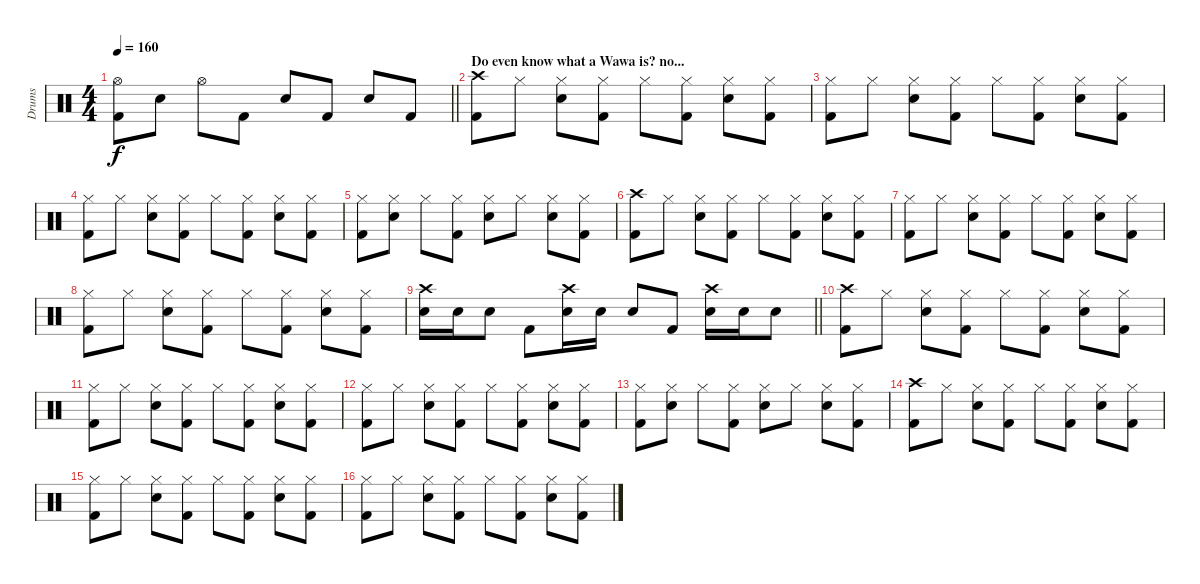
\track ("Drums" "Drums") {instrument percussion}
\staff {score}
\articulation defaults
\ts (4 4)
\tempo 160
\clef neutral
\barLineRight lightlight
\ks c
("Hi-Hat (open)" "Kick (hit) 2").8{dy f} "Electric Snare (hit)".8 "Hi-Hat (open)".8 "Kick (hit) 2".8 "Electric Snare (hit)".8 "Kick (hit) 2".8 "Electric Snare (hit)".8 "Kick (hit) 2".8 |
\section ("" "Do even know what a Wawa is? no...")
("Crash high (hit)" "Kick (hit) 2").8 "Hi-Hat (closed)".8 ("Hi-Hat (closed)" "Electric Snare (hit)").8 ("Hi-Hat (closed)" "Kick (hit) 2").8 "Hi-Hat (closed)".8 ("Hi-Hat (closed)" "Kick (hit) 2").8 ("Hi-Hat (closed)" "Electric Snare (hit)").8 ("Hi-Hat (closed)" "Kick (hit) 2").8 |
("Hi-Hat (closed)" "Kick (hit) 2").8 "Hi-Hat (closed)".8 ("Hi-Hat (closed)" "Electric Snare (hit)").8 ("Hi-Hat (closed)" "Kick (hit) 2").8 "Hi-Hat (closed)".8 ("Hi-Hat (closed)" "Kick (hit) 2").8 ("Hi-Hat (closed)" "Electric Snare (hit)").8 ("Hi-Hat (closed)" "Kick (hit) 2").8 |
("Hi-Hat (closed)" "Kick (hit) 2").8 "Hi-Hat (closed)".8 ("Hi-Hat (closed)" "Electric Snare (hit)").8 ("Hi-Hat (closed)" "Kick (hit) 2").8 "Hi-Hat (closed)".8 ("Hi-Hat (closed)" "Kick (hit) 2").8 ("Hi-Hat (closed)" "Electric Snare (hit)").8 ("Hi-Hat (closed)" "Kick (hit) 2").8 |
("Hi-Hat (closed)" "Kick (hit) 2").8 ("Hi-Hat (closed)" "Electric Snare (hit)").8 "Hi-Hat (closed)".8 ("Hi-Hat (closed)" "Kick (hit) 2").8 ("Hi-Hat (closed)" "Electric Snare (hit)").8 "Hi-Hat (closed)".8 ("Hi-Hat (closed)" "Electric Snare (hit)").8 ("Hi-Hat (closed)" "Kick (hit) 2").8 |
("Crash high (hit)" "Kick (hit) 2").8 "Hi-Hat (closed)".8 ("Hi-Hat (closed)" "Electric Snare (hit)").8 ("Hi-Hat (closed)" "Kick (hit) 2").8 "Hi-Hat (closed)".8 ("Hi-Hat (closed)" "Kick (hit) 2").8 ("Hi-Hat (closed)" "Electric Snare (hit)").8 ("Hi-Hat (closed)" "Kick (hit) 2").8 |
("Hi-Hat (closed)" "Kick (hit) 2").8 "Hi-Hat (closed)".8 ("Hi-Hat (closed)" "Electric Snare (hit)").8 ("Hi-Hat (closed)" "Kick (hit) 2").8 "Hi-Hat (closed)".8 ("Hi-Hat (closed)" "Kick (hit) 2").8 ("Hi-Hat (closed)" "Electric Snare (hit)").8 ("Hi-Hat (closed)" "Kick (hit) 2").8 |
("Hi-Hat (closed)" "Kick (hit) 2").8 "Hi-Hat (closed)".8 ("Hi-Hat (closed)" "Electric Snare (hit)").8 ("Hi-Hat (closed)" "Kick (hit) 2").8 "Hi-Hat (closed)".8 ("Hi-Hat (closed)" "Kick (hit) 2").8 ("Hi-Hat (closed)" "Electric Snare (hit)").8 ("Hi-Hat (closed)" "Kick (hit) 2").8 |
\barLineRight lightlight
("Crash high (hit)" "Electric Snare (hit)").16 "Electric Snare (hit)".16 "Electric Snare (hit)".8 "Kick (hit) 2".8 ("Crash high (hit)" "Electric Snare (hit)").16 "Electric Snare (hit)".16 "Electric Snare (hit)".8 "Kick (hit) 2".8 ("Crash high (hit)" "Electric Snare (hit)").16 "Electric Snare (hit)".16 "Electric Snare (hit)".8 |
("Crash high (hit)" "Kick (hit) 2").8 "Hi-Hat (closed)".8 ("Hi-Hat (closed)" "Electric Snare (hit)").8 ("Hi-Hat (closed)" "Kick (hit) 2").8 "Hi-Hat (closed)".8 ("Hi-Hat (closed)" "Kick (hit) 2").8 ("Hi-Hat (closed)" "Electric Snare (hit)").8 ("Hi-Hat (closed)" "Kick (hit) 2").8 |
("Hi-Hat (closed)" "Kick (hit) 2").8 "Hi-Hat (closed)".8 ("Hi-Hat (closed)" "Electric Snare (hit)").8 ("Hi-Hat (closed)" "Kick (hit) 2").8 "Hi-Hat (closed)".8 ("Hi-Hat (closed)" "Kick (hit) 2").8 ("Hi-Hat (closed)" "Electric Snare (hit)").8 ("Hi-Hat (closed)" "Kick (hit) 2").8 |
("Hi-Hat (closed)" "Kick (hit) 2").8 "Hi-Hat (closed)".8 ("Hi-Hat (closed)" "Electric Snare (hit)").8 ("Hi-Hat (closed)" "Kick (hit) 2").8 "Hi-Hat (closed)".8 ("Hi-Hat (closed)" "Kick (hit) 2").8 ("Hi-Hat (closed)" "Electric Snare (hit)").8 ("Hi-Hat (closed)" "Kick (hit) 2").8 |
("Hi-Hat (closed)" "Kick (hit) 2").8 ("Hi-Hat (closed)" "Electric Snare (hit)").8 "Hi-Hat (closed)".8 ("Hi-Hat (closed)" "Kick (hit) 2").8 ("Hi-Hat (closed)" "Electric Snare (hit)").8 "Hi-Hat (closed)".8 ("Hi-Hat (closed)" "Electric Snare (hit)").8 ("Hi-Hat (closed)" "Kick (hit) 2").8 |
("Crash high (hit)" "Kick (hit) 2").8 "Hi-Hat (closed)".8 ("Hi-Hat (closed)" "Electric Snare (hit)").8 ("Hi-Hat (closed)" "Kick (hit) 2").8 "Hi-Hat (closed)".8 ("Hi-Hat (closed)" "Kick (hit) 2").8 ("Hi-Hat (closed)" "Electric Snare (hit)").8 ("Hi-Hat (closed)" "Kick (hit) 2").8 |
("Hi-Hat (closed)" "Kick (hit) 2").8 "Hi-Hat (closed)".8 ("Hi-Hat (closed)" "Electric Snare (hit)").8 ("Hi-Hat (closed)" "Kick (hit) 2").8 "Hi-Hat (closed)".8 ("Hi-Hat (closed)" "Kick (hit) 2").8 ("Hi-Hat (closed)" "Electric Snare (hit)").8 ("Hi-Hat (closed)" "Kick (hit) 2").8 |
("Hi-Hat (closed)" "Kick (hit) 2").8 "Hi-Hat (closed)".8 ("Hi-Hat (closed)" "Electric Snare (hit)").8 ("Hi-Hat (closed)" "Kick (hit) 2").8 "Hi-Hat (closed)".8 ("Hi-Hat (closed)" "Kick (hit) 2").8 ("Hi-Hat (closed)" "Electric Snare (hit)").8 ("Hi-Hat (closed)" "Kick (hit) 2").8
